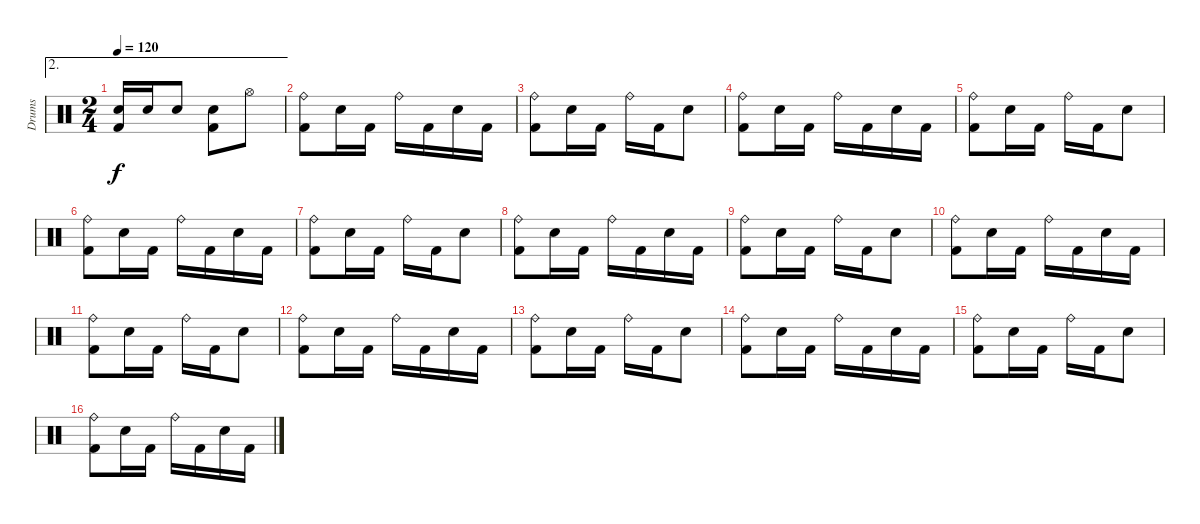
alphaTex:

\track ("Drums" "Drums") {instrument percussion}
\staff {score}
\articulation defaults
\ae 2
\ts (2 4)
\tempo 120
\clef neutral
\ks aminor
("Electric Snare (hit)" "Kick (hit) 2").16{dy f} "Electric Snare (hit)".16 "Electric Snare (hit)".8 ("Electric Snare (hit)" "Kick (hit) 2").8 "Hi-Hat (open)".8 |
("Kick (hit) 2" "Ride (bell)").8 "Electric Snare (hit)".16 "Kick (hit) 2".16 "Ride (bell)".16 "Kick (hit) 2".16 "Electric Snare (hit)".16 "Kick (hit) 2".16 |
("Kick (hit) 2" "Ride (bell)").8 "Electric Snare (hit)".16 "Kick (hit) 2".16 "Ride (bell)".16 "Kick (hit) 2".16 "Electric Snare (hit)".8 |
("Kick (hit) 2" "Ride (bell)").8 "Electric Snare (hit)".16 "Kick (hit) 2".16 "Ride (bell)".16 "Kick (hit) 2".16 "Electric Snare (hit)".16 "Kick (hit) 2".16 |
("Kick (hit) 2" "Ride (bell)").8 "Electric Snare (hit)".16 "Kick (hit) 2".16 "Ride (bell)".16 "Kick (hit) 2".16 "Electric Snare (hit)".8 |
("Kick (hit) 2" "Ride (bell)").8 "Electric Snare (hit)".16 "Kick (hit) 2".16 "Ride (bell)".16 "Kick (hit) 2".16 "Electric Snare (hit)".16 "Kick (hit) 2".16 |
("Kick (hit) 2" "Ride (bell)").8 "Electric Snare (hit)".16 "Kick (hit) 2".16 "Ride (bell)".16 "Kick (hit) 2".16 "Electric Snare (hit)".8 |
("Kick (hit) 2" "Ride (bell)").8 "Electric Snare (hit)".16 "Kick (hit) 2".16 "Ride (bell)".16 "Kick (hit) 2".16 "Electric Snare (hit)".16 "Kick (hit) 2".16 |
("Kick (hit) 2" "Ride (bell)").8 "Electric Snare (hit)".16 "Kick (hit) 2".16 "Ride (bell)".16 "Kick (hit) 2".16 "Electric Snare (hit)".8 |
("Kick (hit) 2" "Ride (bell)").8 "Electric Snare (hit)".16 "Kick (hit) 2".16 "Ride (bell)".16 "Kick (hit) 2".16 "Electric Snare (hit)".16 "Kick (hit) 2".16 |
("Kick (hit) 2" "Ride (bell)").8 "Electric Snare (hit)".16 "Kick (hit) 2".16 "Ride (bell)".16 "Kick (hit) 2".16 "Electric Snare (hit)".8 |
("Kick (hit) 2" "Ride (bell)").8 "Electric Snare (hit)".16 "Kick (hit) 2".16 "Ride (bell)".16 "Kick (hit) 2".16 "Electric Snare (hit)".16 "Kick (hit) 2".16 |
("Kick (hit) 2" "Ride (bell)").8 "Electric Snare (hit)".16 "Kick (hit) 2".16 "Ride (bell)".16 "Kick (hit) 2".16 "Electric Snare (hit)".8 |
("Kick (hit) 2" "Ride (bell)").8 "Electric Snare (hit)".16 "Kick (hit) 2".16 "Ride (bell)".16 "Kick (hit) 2".16 "Electric Snare (hit)".16 "Kick (hit) 2".16 |
("Kick (hit) 2" "Ride (bell)").8 "Electric Snare (hit)".16 "Kick (hit) 2".16 "Ride (bell)".16 "Kick (hit) 2".16 "Electric Snare (hit)".8 |
("Kick (hit) 2" "Ride (bell)").8 "Electric Snare (hit)".16 "Kick (hit) 2".16 "Ride (bell)".16 "Kick (hit) 2".16 "Electric Snare (hit)".16 "Kick (hit) 2".16
